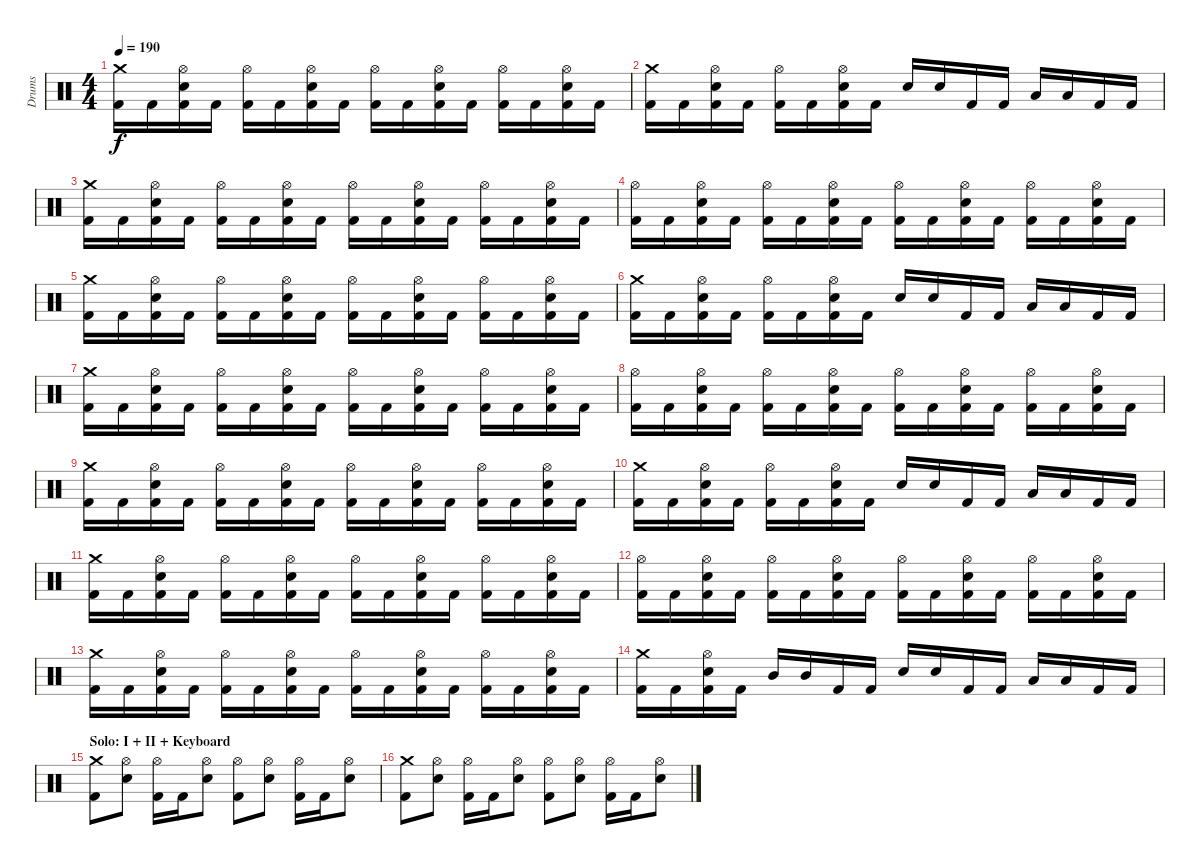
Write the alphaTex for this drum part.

\track ("Drums" "Drums") {instrument percussion}
\staff {score}
\articulation defaults
\ts (4 4)
\tempo 190
\clef neutral
\ks c
("Crash medium (hit)" "Kick (hit) 2").16{dy f} "Kick (hit) 2".16 ("Hi-Hat (open)" "Snare (hit) 2" "Kick (hit) 2").16 "Kick (hit) 2".16 ("Hi-Hat (open)" "Kick (hit) 2").16 "Kick (hit) 2".16 ("Hi-Hat (open)" "Snare (hit) 2" "Kick (hit) 2").16 "Kick (hit) 2".16 ("Hi-Hat (open)" "Kick (hit) 2").16 "Kick (hit) 2".16 ("Hi-Hat (open)" "Snare (hit) 2" "Kick (hit) 2").16 "Kick (hit) 2".16 ("Hi-Hat (open)" "Kick (hit) 2").16 "Kick (hit) 2".16 ("Hi-Hat (open)" "Snare (hit) 2" "Kick (hit) 2").16 "Kick (hit) 2".16 |
("Crash medium (hit)" "Kick (hit) 2").16 "Kick (hit) 2".16 ("Hi-Hat (open)" "Snare (hit) 2" "Kick (hit) 2").16 "Kick (hit) 2".16 ("Hi-Hat (open)" "Kick (hit) 2").16 "Kick (hit) 2".16 ("Hi-Hat (open)" "Snare (hit) 2" "Kick (hit) 2").16 "Kick (hit) 2".16 "Snare (hit) 2".16 "Snare (hit) 2".16 "Kick (hit) 2".16 "Kick (hit) 2".16 "Low Tom (hit)".16 "Low Tom (hit)".16 "Kick (hit) 2".16 "Kick (hit) 2".16 |
("Crash medium (hit)" "Kick (hit) 2").16 "Kick (hit) 2".16 ("Hi-Hat (open)" "Snare (hit) 2" "Kick (hit) 2").16 "Kick (hit) 2".16 ("Hi-Hat (open)" "Kick (hit) 2").16 "Kick (hit) 2".16 ("Hi-Hat (open)" "Snare (hit) 2" "Kick (hit) 2").16 "Kick (hit) 2".16 ("Hi-Hat (open)" "Kick (hit) 2").16 "Kick (hit) 2".16 ("Hi-Hat (open)" "Snare (hit) 2" "Kick (hit) 2").16 "Kick (hit) 2".16 ("Hi-Hat (open)" "Kick (hit) 2").16 "Kick (hit) 2".16 ("Hi-Hat (open)" "Snare (hit) 2" "Kick (hit) 2").16 "Kick (hit) 2".16 |
("Hi-Hat (open)" "Kick (hit) 2").16 "Kick (hit) 2".16 ("Hi-Hat (open)" "Snare (hit) 2" "Kick (hit) 2").16 "Kick (hit) 2".16 ("Hi-Hat (open)" "Kick (hit) 2").16 "Kick (hit) 2".16 ("Hi-Hat (open)" "Snare (hit) 2" "Kick (hit) 2").16 "Kick (hit) 2".16 ("Hi-Hat (open)" "Kick (hit) 2").16 "Kick (hit) 2".16 ("Hi-Hat (open)" "Snare (hit) 2" "Kick (hit) 2").16 "Kick (hit) 2".16 ("Hi-Hat (open)" "Kick (hit) 2").16 "Kick (hit) 2".16 ("Hi-Hat (open)" "Snare (hit) 2" "Kick (hit) 2").16 "Kick (hit) 2".16 |
("Crash medium (hit)" "Kick (hit) 2").16 "Kick (hit) 2".16 ("Hi-Hat (open)" "Snare (hit) 2" "Kick (hit) 2").16 "Kick (hit) 2".16 ("Hi-Hat (open)" "Kick (hit) 2").16 "Kick (hit) 2".16 ("Hi-Hat (open)" "Snare (hit) 2" "Kick (hit) 2").16 "Kick (hit) 2".16 ("Hi-Hat (open)" "Kick (hit) 2").16 "Kick (hit) 2".16 ("Hi-Hat (open)" "Snare (hit) 2" "Kick (hit) 2").16 "Kick (hit) 2".16 ("Hi-Hat (open)" "Kick (hit) 2").16 "Kick (hit) 2".16 ("Hi-Hat (open)" "Snare (hit) 2" "Kick (hit) 2").16 "Kick (hit) 2".16 |
("Crash medium (hit)" "Kick (hit) 2").16 "Kick (hit) 2".16 ("Hi-Hat (open)" "Snare (hit) 2" "Kick (hit) 2").16 "Kick (hit) 2".16 ("Hi-Hat (open)" "Kick (hit) 2").16 "Kick (hit) 2".16 ("Hi-Hat (open)" "Snare (hit) 2" "Kick (hit) 2").16 "Kick (hit) 2".16 "Snare (hit) 2".16 "Snare (hit) 2".16 "Kick (hit) 2".16 "Kick (hit) 2".16 "Low Tom (hit)".16 "Low Tom (hit)".16 "Kick (hit) 2".16 "Kick (hit) 2".16 |
("Crash medium (hit)" "Kick (hit) 2").16 "Kick (hit) 2".16 ("Hi-Hat (open)" "Snare (hit) 2" "Kick (hit) 2").16 "Kick (hit) 2".16 ("Hi-Hat (open)" "Kick (hit) 2").16 "Kick (hit) 2".16 ("Hi-Hat (open)" "Snare (hit) 2" "Kick (hit) 2").16 "Kick (hit) 2".16 ("Hi-Hat (open)" "Kick (hit) 2").16 "Kick (hit) 2".16 ("Hi-Hat (open)" "Snare (hit) 2" "Kick (hit) 2").16 "Kick (hit) 2".16 ("Hi-Hat (open)" "Kick (hit) 2").16 "Kick (hit) 2".16 ("Hi-Hat (open)" "Snare (hit) 2" "Kick (hit) 2").16 "Kick (hit) 2".16 |
("Hi-Hat (open)" "Kick (hit) 2").16 "Kick (hit) 2".16 ("Hi-Hat (open)" "Snare (hit) 2" "Kick (hit) 2").16 "Kick (hit) 2".16 ("Hi-Hat (open)" "Kick (hit) 2").16 "Kick (hit) 2".16 ("Hi-Hat (open)" "Snare (hit) 2" "Kick (hit) 2").16 "Kick (hit) 2".16 ("Hi-Hat (open)" "Kick (hit) 2").16 "Kick (hit) 2".16 ("Hi-Hat (open)" "Snare (hit) 2" "Kick (hit) 2").16 "Kick (hit) 2".16 ("Hi-Hat (open)" "Kick (hit) 2").16 "Kick (hit) 2".16 ("Hi-Hat (open)" "Snare (hit) 2" "Kick (hit) 2").16 "Kick (hit) 2".16 |
("Crash medium (hit)" "Kick (hit) 2").16 "Kick (hit) 2".16 ("Hi-Hat (open)" "Snare (hit) 2" "Kick (hit) 2").16 "Kick (hit) 2".16 ("Hi-Hat (open)" "Kick (hit) 2").16 "Kick (hit) 2".16 ("Hi-Hat (open)" "Snare (hit) 2" "Kick (hit) 2").16 "Kick (hit) 2".16 ("Hi-Hat (open)" "Kick (hit) 2").16 "Kick (hit) 2".16 ("Hi-Hat (open)" "Snare (hit) 2" "Kick (hit) 2").16 "Kick (hit) 2".16 ("Hi-Hat (open)" "Kick (hit) 2").16 "Kick (hit) 2".16 ("Hi-Hat (open)" "Snare (hit) 2" "Kick (hit) 2").16 "Kick (hit) 2".16 |
("Crash medium (hit)" "Kick (hit) 2").16 "Kick (hit) 2".16 ("Hi-Hat (open)" "Snare (hit) 2" "Kick (hit) 2").16 "Kick (hit) 2".16 ("Hi-Hat (open)" "Kick (hit) 2").16 "Kick (hit) 2".16 ("Hi-Hat (open)" "Snare (hit) 2" "Kick (hit) 2").16 "Kick (hit) 2".16 "Snare (hit) 2".16 "Snare (hit) 2".16 "Kick (hit) 2".16 "Kick (hit) 2".16 "Low Tom (hit)".16 "Low Tom (hit)".16 "Kick (hit) 2".16 "Kick (hit) 2".16 |
("Crash medium (hit)" "Kick (hit) 2").16 "Kick (hit) 2".16 ("Hi-Hat (open)" "Snare (hit) 2" "Kick (hit) 2").16 "Kick (hit) 2".16 ("Hi-Hat (open)" "Kick (hit) 2").16 "Kick (hit) 2".16 ("Hi-Hat (open)" "Snare (hit) 2" "Kick (hit) 2").16 "Kick (hit) 2".16 ("Hi-Hat (open)" "Kick (hit) 2").16 "Kick (hit) 2".16 ("Hi-Hat (open)" "Snare (hit) 2" "Kick (hit) 2").16 "Kick (hit) 2".16 ("Hi-Hat (open)" "Kick (hit) 2").16 "Kick (hit) 2".16 ("Hi-Hat (open)" "Snare (hit) 2" "Kick (hit) 2").16 "Kick (hit) 2".16 |
("Hi-Hat (open)" "Kick (hit) 2").16 "Kick (hit) 2".16 ("Hi-Hat (open)" "Snare (hit) 2" "Kick (hit) 2").16 "Kick (hit) 2".16 ("Hi-Hat (open)" "Kick (hit) 2").16 "Kick (hit) 2".16 ("Hi-Hat (open)" "Snare (hit) 2" "Kick (hit) 2").16 "Kick (hit) 2".16 ("Hi-Hat (open)" "Kick (hit) 2").16 "Kick (hit) 2".16 ("Hi-Hat (open)" "Snare (hit) 2" "Kick (hit) 2").16 "Kick (hit) 2".16 ("Hi-Hat (open)" "Kick (hit) 2").16 "Kick (hit) 2".16 ("Hi-Hat (open)" "Snare (hit) 2" "Kick (hit) 2").16 "Kick (hit) 2".16 |
("Crash medium (hit)" "Kick (hit) 2").16 "Kick (hit) 2".16 ("Hi-Hat (open)" "Snare (hit) 2" "Kick (hit) 2").16 "Kick (hit) 2".16 ("Hi-Hat (open)" "Kick (hit) 2").16 "Kick (hit) 2".16 ("Hi-Hat (open)" "Snare (hit) 2" "Kick (hit) 2").16 "Kick (hit) 2".16 ("Hi-Hat (open)" "Kick (hit) 2").16 "Kick (hit) 2".16 ("Hi-Hat (open)" "Snare (hit) 2" "Kick (hit) 2").16 "Kick (hit) 2".16 ("Hi-Hat (open)" "Kick (hit) 2").16 "Kick (hit) 2".16 ("Hi-Hat (open)" "Snare (hit) 2" "Kick (hit) 2").16 "Kick (hit) 2".16 |
("Crash medium (hit)" "Kick (hit) 2").16 "Kick (hit) 2".16 ("Hi-Hat (open)" "Snare (hit) 2" "Kick (hit) 2").16 "Kick (hit) 2".16 "Mid Tom (hit)".16 "Mid Tom (hit)".16 "Kick (hit) 2".16 "Kick (hit) 2".16 "Snare (hit) 2".16 "Snare (hit) 2".16 "Kick (hit) 2".16 "Kick (hit) 2".16 "Low Tom (hit)".16 "Low Tom (hit)".16 "Kick (hit) 2".16 "Kick (hit) 2".16 |
\section ("" "Solo: I + II + Keyboard")
("Crash medium (hit)" "Kick (hit) 2").8 ("Hi-Hat (open)" "Snare (hit) 2").8 ("Hi-Hat (open)" "Kick (hit) 2").16 "Kick (hit) 2".16 ("Hi-Hat (open)" "Snare (hit) 2").8 ("Hi-Hat (open)" "Kick (hit) 2").8 ("Hi-Hat (open)" "Snare (hit) 2").8 ("Hi-Hat (open)" "Kick (hit) 2").16 "Kick (hit) 2".16 ("Hi-Hat (open)" "Snare (hit) 2").8 |
("Crash medium (hit)" "Kick (hit) 2").8 ("Hi-Hat (open)" "Snare (hit) 2").8 ("Hi-Hat (open)" "Kick (hit) 2").16 "Kick (hit) 2".16 ("Hi-Hat (open)" "Snare (hit) 2").8 ("Hi-Hat (open)" "Kick (hit) 2").8 ("Hi-Hat (open)" "Snare (hit) 2").8 ("Hi-Hat (open)" "Kick (hit) 2").16 "Kick (hit) 2".16 ("Hi-Hat (open)" "Snare (hit) 2").8
